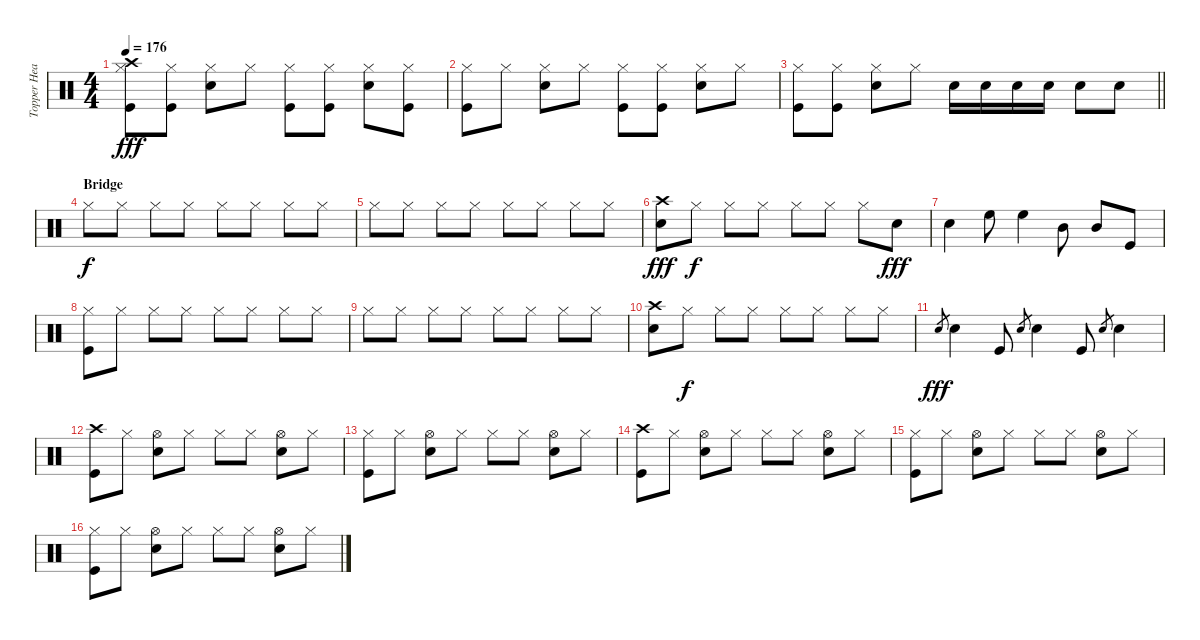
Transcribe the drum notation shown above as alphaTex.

\track ("Topper Headon - Drums" "Topper Hea") {instrument percussion}
\staff {score}
\articulation defaults
\ts (4 4)
\tempo 176
\clef neutral
\ks c
("Kick (hit)" "Hi-Hat (closed)" "Crash high (hit)").8{dy fff} ("Kick (hit)" "Hi-Hat (closed)").8 ("Hi-Hat (closed)" "Snare (hit) 2").8 "Hi-Hat (closed)".8 ("Kick (hit)" "Hi-Hat (closed)").8 ("Kick (hit)" "Hi-Hat (closed)").8 ("Hi-Hat (closed)" "Snare (hit) 2").8 ("Hi-Hat (closed)" "Kick (hit)").8 |
("Hi-Hat (closed)" "Kick (hit)").8 "Hi-Hat (closed)".8 ("Hi-Hat (closed)" "Snare (hit) 2").8 "Hi-Hat (closed)".8 ("Hi-Hat (closed)" "Kick (hit)").8 ("Hi-Hat (closed)" "Kick (hit)").8 ("Hi-Hat (closed)" "Snare (hit) 2").8 "Hi-Hat (closed)".8 |
\barLineRight lightlight
("Kick (hit)" "Hi-Hat (closed)").8 ("Kick (hit)" "Hi-Hat (closed)").8 ("Hi-Hat (closed)" "Snare (hit) 2").8 "Hi-Hat (closed)".8 "Snare (hit) 2".16 "Snare (hit) 2".16 "Snare (hit) 2".16 "Snare (hit) 2".16 "Snare (hit) 2".8 "Snare (hit) 2".8 |
\section ("" "Bridge")
"Hi-Hat (closed)".8{dy f} "Hi-Hat (closed)".8 "Hi-Hat (closed)".8 "Hi-Hat (closed)".8 "Hi-Hat (closed)".8 "Hi-Hat (closed)".8 "Hi-Hat (closed)".8 "Hi-Hat (closed)".8 |
"Hi-Hat (closed)".8 "Hi-Hat (closed)".8 "Hi-Hat (closed)".8 "Hi-Hat (closed)".8 "Hi-Hat (closed)".8 "Hi-Hat (closed)".8 "Hi-Hat (closed)".8 "Hi-Hat (closed)".8 |
("Snare (hit) 2" "Crash high (hit)").8{dy fff} "Hi-Hat (closed)".8{dy f} "Hi-Hat (closed)".8 "Hi-Hat (closed)".8 "Hi-Hat (closed)".8 "Hi-Hat (closed)".8 "Hi-Hat (closed)".8 "Snare (hit) 2".8{dy fff} |
"Snare (hit) 2".4 "High Floor Tom (hit)".8 "High Floor Tom (hit)".4 "Mid Tom (hit)".8 "Mid Tom (hit)".8 "Kick (hit)".8 |
("Kick (hit)" "Hi-Hat (closed)").8 "Hi-Hat (closed)".8 "Hi-Hat (closed)".8 "Hi-Hat (closed)".8 "Hi-Hat (closed)".8 "Hi-Hat (closed)".8 "Hi-Hat (closed)".8 "Hi-Hat (closed)".8 |
"Hi-Hat (closed)".8 "Hi-Hat (closed)".8 "Hi-Hat (closed)".8 "Hi-Hat (closed)".8 "Hi-Hat (closed)".8 "Hi-Hat (closed)".8 "Hi-Hat (closed)".8 "Hi-Hat (closed)".8 |
("Snare (hit) 2" "Crash high (hit)").8 "Hi-Hat (closed)".8{dy f} "Hi-Hat (closed)".8 "Hi-Hat (closed)".8 "Hi-Hat (closed)".8 "Hi-Hat (closed)".8 "Hi-Hat (closed)".8 "Hi-Hat (closed)".8 |
"Snare (hit) 2".8{gr dy fff} "Snare (hit) 2".4 "Kick (hit)".8 "Snare (hit) 2".8{gr} "Snare (hit) 2".4 "Kick (hit)".8 "Snare (hit) 2".8{gr} "Snare (hit) 2".4 |
("Crash high (hit)" "Kick (hit)").8 "Hi-Hat (closed)".8 ("Hi-Hat (open)" "Snare (hit) 2").8 "Hi-Hat (closed)".8 "Hi-Hat (closed)".8 "Hi-Hat (closed)".8 ("Hi-Hat (open)" "Snare (hit) 2").8 "Hi-Hat (closed)".8 |
("Hi-Hat (closed)" "Kick (hit)").8 "Hi-Hat (closed)".8 ("Hi-Hat (open)" "Snare (hit) 2").8 "Hi-Hat (closed)".8 "Hi-Hat (closed)".8 "Hi-Hat (closed)".8 ("Hi-Hat (open)" "Snare (hit) 2").8 "Hi-Hat (closed)".8 |
("Crash high (hit)" "Kick (hit)").8 "Hi-Hat (closed)".8 ("Hi-Hat (open)" "Snare (hit) 2").8 "Hi-Hat (closed)".8 "Hi-Hat (closed)".8 "Hi-Hat (closed)".8 ("Hi-Hat (open)" "Snare (hit) 2").8 "Hi-Hat (closed)".8 |
("Hi-Hat (closed)" "Kick (hit)").8 "Hi-Hat (closed)".8 ("Hi-Hat (open)" "Snare (hit) 2").8 "Hi-Hat (closed)".8 "Hi-Hat (closed)".8 "Hi-Hat (closed)".8 ("Hi-Hat (open)" "Snare (hit) 2").8 "Hi-Hat (closed)".8 |
("Hi-Hat (closed)" "Kick (hit)").8 "Hi-Hat (closed)".8 ("Hi-Hat (open)" "Snare (hit) 2").8 "Hi-Hat (closed)".8 "Hi-Hat (closed)".8 "Hi-Hat (closed)".8 ("Hi-Hat (open)" "Snare (hit) 2").8 "Hi-Hat (closed)".8
